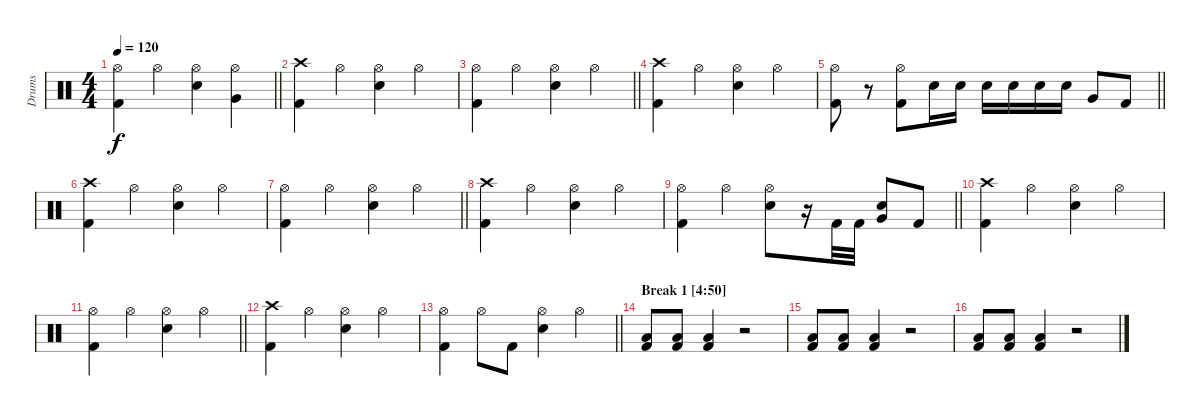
\track ("Drums" "Drums") {instrument percussion}
\staff {score}
\articulation defaults
\ts (4 4)
\tempo 120
\clef neutral
\barLineRight lightlight
\ks c
("Hi-Hat (open)" "Kick (hit) 2").4{dy f} "Hi-Hat (open)".4 ("Hi-Hat (open)" "Snare (hit) 2").4 ("Hi-Hat (open)" "Very Low Tom (hit)").4 |
("Crash high (hit)" "Kick (hit) 2").4 "Hi-Hat (open)".4 ("Hi-Hat (open)" "Snare (hit) 2").4 "Hi-Hat (open)".4 |
\barLineRight lightlight
("Hi-Hat (open)" "Kick (hit) 2").4 "Hi-Hat (open)".4 ("Hi-Hat (open)" "Snare (hit) 2").4 "Hi-Hat (open)".4 |
("Crash high (hit)" "Kick (hit) 2").4 "Hi-Hat (open)".4 ("Hi-Hat (open)" "Snare (hit) 2").4 "Hi-Hat (open)".4 |
\barLineRight lightlight
("Hi-Hat (open)" "Kick (hit) 2").8 r.8 ("Hi-Hat (open)" "Kick (hit) 2").8 "Snare (hit) 2".16 "Snare (hit) 2".16 "Snare (hit) 2".16 "Snare (hit) 2".16 "Snare (hit) 2".16 "Snare (hit) 2".16 "Very Low Tom (hit)".8 "Kick (hit) 2".8 |
("Crash high (hit)" "Kick (hit) 2").4 "Hi-Hat (open)".4 ("Hi-Hat (open)" "Snare (hit) 2").4 "Hi-Hat (open)".4 |
\barLineRight lightlight
("Hi-Hat (open)" "Kick (hit) 2").4 "Hi-Hat (open)".4 ("Hi-Hat (open)" "Snare (hit) 2").4 "Hi-Hat (open)".4 |
("Crash high (hit)" "Kick (hit) 2").4 "Hi-Hat (open)".4 ("Hi-Hat (open)" "Snare (hit) 2").4 "Hi-Hat (open)".4 |
\barLineRight lightlight
("Hi-Hat (open)" "Kick (hit) 2").4 "Hi-Hat (open)".4 ("Hi-Hat (open)" "Snare (hit) 2").8 r.16 "Kick (hit) 2".32 "Kick (hit) 2".32 ("Very Low Tom (hit)" "Snare (hit) 2").8 "Kick (hit) 2".8 |
("Crash high (hit)" "Kick (hit) 2").4 "Hi-Hat (open)".4 ("Hi-Hat (open)" "Snare (hit) 2").4 "Hi-Hat (open)".4 |
\barLineRight lightlight
("Hi-Hat (open)" "Kick (hit) 2").4 "Hi-Hat (open)".4 ("Hi-Hat (open)" "Snare (hit) 2").4 "Hi-Hat (open)".4 |
("Crash high (hit)" "Kick (hit) 2").4 "Hi-Hat (open)".4 ("Hi-Hat (open)" "Snare (hit) 2").4 "Hi-Hat (open)".4 |
\barLineRight lightlight
("Hi-Hat (open)" "Kick (hit) 2").4 "Hi-Hat (open)".8 "Kick (hit) 2".8 ("Hi-Hat (open)" "Snare (hit) 2").4 "Hi-Hat (open)".4 |
\section ("" "Break 1 [4:50]")
("Low Tom (hit)" "Kick (hit) 2").8 ("Low Tom (hit)" "Kick (hit) 2").8 ("Low Tom (hit)" "Kick (hit) 2").4 r.2 |
("Low Tom (hit)" "Kick (hit) 2").8 ("Low Tom (hit)" "Kick (hit) 2").8 ("Low Tom (hit)" "Kick (hit) 2").4 r.2 |
("Low Tom (hit)" "Kick (hit) 2").8 ("Low Tom (hit)" "Kick (hit) 2").8 ("Low Tom (hit)" "Kick (hit) 2").4 r.2
